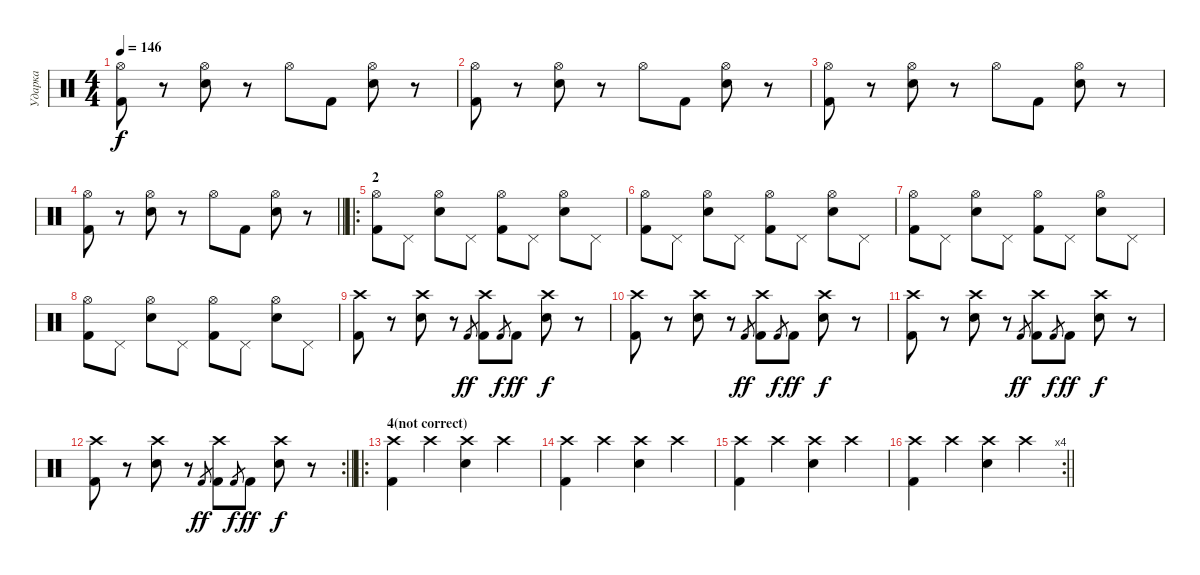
\track ("Ударка" "Ударка") {instrument percussion}
\staff {score}
\articulation defaults
\ts (4 4)
\tempo 146
\clef neutral
\ks c
("Hi-Hat (open)" "Kick (hit) 2").8{dy f} r.8 ("Hi-Hat (open)" "Electric Snare (hit)").8 r.8 "Hi-Hat (open)".8 "Kick (hit) 2".8 ("Hi-Hat (open)" "Electric Snare (hit)").8 r.8 |
("Hi-Hat (open)" "Kick (hit) 2").8 r.8 ("Hi-Hat (open)" "Electric Snare (hit)").8 r.8 "Hi-Hat (open)".8 "Kick (hit) 2".8 ("Hi-Hat (open)" "Electric Snare (hit)").8 r.8 |
("Hi-Hat (open)" "Kick (hit) 2").8 r.8 ("Hi-Hat (open)" "Electric Snare (hit)").8 r.8 "Hi-Hat (open)".8 "Kick (hit) 2".8 ("Hi-Hat (open)" "Electric Snare (hit)").8 r.8 |
\barLineRight lightlight
("Hi-Hat (open)" "Kick (hit) 2").8 r.8 ("Hi-Hat (open)" "Electric Snare (hit)").8 r.8 "Hi-Hat (open)".8 "Kick (hit) 2".8 ("Hi-Hat (open)" "Electric Snare (hit)").8 r.8 |
\ro
\section ("" "2")
("Hi-Hat (open)" "Kick (hit) 2").8 "Pedal Hi-Hat (hit)".8 ("Hi-Hat (open)" "Electric Snare (hit)").8 "Pedal Hi-Hat (hit)".8 ("Hi-Hat (open)" "Kick (hit) 2").8 "Pedal Hi-Hat (hit)".8 ("Hi-Hat (open)" "Electric Snare (hit)").8 "Pedal Hi-Hat (hit)".8 |
("Hi-Hat (open)" "Kick (hit) 2").8 "Pedal Hi-Hat (hit)".8 ("Hi-Hat (open)" "Electric Snare (hit)").8 "Pedal Hi-Hat (hit)".8 ("Hi-Hat (open)" "Kick (hit) 2").8 "Pedal Hi-Hat (hit)".8 ("Hi-Hat (open)" "Electric Snare (hit)").8 "Pedal Hi-Hat (hit)".8 |
("Hi-Hat (open)" "Kick (hit) 2").8 "Pedal Hi-Hat (hit)".8 ("Hi-Hat (open)" "Electric Snare (hit)").8 "Pedal Hi-Hat (hit)".8 ("Hi-Hat (open)" "Kick (hit) 2").8 "Pedal Hi-Hat (hit)".8 ("Hi-Hat (open)" "Electric Snare (hit)").8 "Pedal Hi-Hat (hit)".8 |
("Hi-Hat (open)" "Kick (hit) 2").8 "Pedal Hi-Hat (hit)".8 ("Hi-Hat (open)" "Electric Snare (hit)").8 "Pedal Hi-Hat (hit)".8 ("Hi-Hat (open)" "Kick (hit) 2").8 "Pedal Hi-Hat (hit)".8 ("Hi-Hat (open)" "Electric Snare (hit)").8 "Pedal Hi-Hat (hit)".8 |
("Crash high (hit)" "Kick (hit) 2").8 r.8 ("Crash high (hit)" "Electric Snare (hit)").8 r.8 "Kick (hit) 2".8{gr dy ff} ("Crash high (hit)" "Kick (hit) 2").8 "Kick (hit) 2".8{gr dy f} "Kick (hit) 2".8{dy ff} ("Crash high (hit)" "Electric Snare (hit)").8{dy f} r.8 |
("Crash high (hit)" "Kick (hit) 2").8 r.8 ("Crash high (hit)" "Electric Snare (hit)").8 r.8 "Kick (hit) 2".8{gr dy ff} ("Crash high (hit)" "Kick (hit) 2").8 "Kick (hit) 2".8{gr dy f} "Kick (hit) 2".8{dy ff} ("Crash high (hit)" "Electric Snare (hit)").8{dy f} r.8 |
("Crash high (hit)" "Kick (hit) 2").8 r.8 ("Crash high (hit)" "Electric Snare (hit)").8 r.8 "Kick (hit) 2".8{gr dy ff} ("Crash high (hit)" "Kick (hit) 2").8 "Kick (hit) 2".8{gr dy f} "Kick (hit) 2".8{dy ff} ("Crash high (hit)" "Electric Snare (hit)").8{dy f} r.8 |
\rc 2
\barLineRight lightlight
("Crash high (hit)" "Kick (hit) 2").8 r.8 ("Crash high (hit)" "Electric Snare (hit)").8 r.8 "Kick (hit) 2".8{gr dy ff} ("Crash high (hit)" "Kick (hit) 2").8 "Kick (hit) 2".8{gr dy f} "Kick (hit) 2".8{dy ff} ("Crash high (hit)" "Electric Snare (hit)").8{dy f} r.8 |
\ro
\section ("" "4(not correct)")
("Crash high (hit)" "Kick (hit) 2").4 "Crash high (hit)".4 ("Crash high (hit)" "Electric Snare (hit)").4 "Crash high (hit)".4 |
("Crash high (hit)" "Kick (hit) 2").4 "Crash high (hit)".4 ("Crash high (hit)" "Electric Snare (hit)").4 "Crash high (hit)".4 |
("Crash high (hit)" "Kick (hit) 2").4 "Crash high (hit)".4 ("Crash high (hit)" "Electric Snare (hit)").4 "Crash high (hit)".4 |
\rc 4
\barLineRight lightlight
("Crash high (hit)" "Kick (hit) 2").4 "Crash high (hit)".4 ("Crash high (hit)" "Electric Snare (hit)").4 "Crash high (hit)".4
